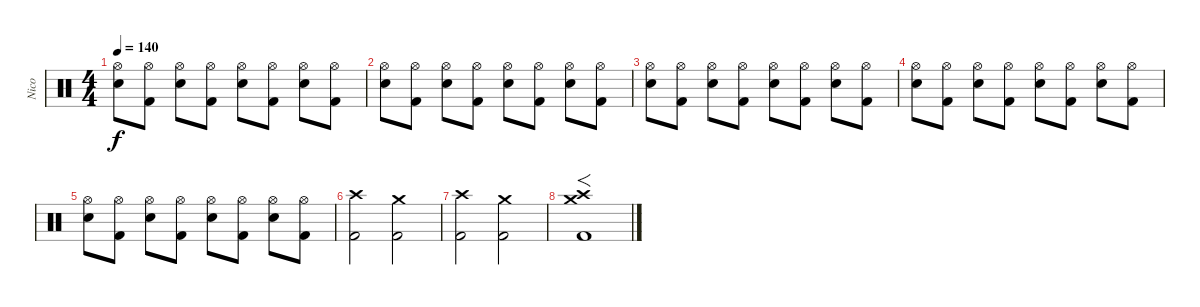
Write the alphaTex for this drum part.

\track ("Nico" "Nico") {instrument percussion}
\staff {score}
\articulation defaults
\ts (4 4)
\tempo 140
\clef neutral
\ks c
("Hi-Hat (open)" "Snare (hit) 2").8{dy f} ("Hi-Hat (open)" "Kick (hit) 2").8 ("Hi-Hat (open)" "Snare (hit) 2").8 ("Hi-Hat (open)" "Kick (hit) 2").8 ("Hi-Hat (open)" "Snare (hit) 2").8 ("Hi-Hat (open)" "Kick (hit) 2").8 ("Hi-Hat (open)" "Snare (hit) 2").8 ("Hi-Hat (open)" "Kick (hit) 2").8 |
("Hi-Hat (open)" "Snare (hit) 2").8 ("Hi-Hat (open)" "Kick (hit) 2").8 ("Hi-Hat (open)" "Snare (hit) 2").8 ("Hi-Hat (open)" "Kick (hit) 2").8 ("Hi-Hat (open)" "Snare (hit) 2").8 ("Hi-Hat (open)" "Kick (hit) 2").8 ("Hi-Hat (open)" "Snare (hit) 2").8 ("Hi-Hat (open)" "Kick (hit) 2").8 |
("Hi-Hat (open)" "Snare (hit) 2").8 ("Hi-Hat (open)" "Kick (hit) 2").8 ("Hi-Hat (open)" "Snare (hit) 2").8 ("Hi-Hat (open)" "Kick (hit) 2").8 ("Hi-Hat (open)" "Snare (hit) 2").8 ("Hi-Hat (open)" "Kick (hit) 2").8 ("Hi-Hat (open)" "Snare (hit) 2").8 ("Hi-Hat (open)" "Kick (hit) 2").8 |
("Hi-Hat (open)" "Snare (hit) 2").8 ("Hi-Hat (open)" "Kick (hit) 2").8 ("Hi-Hat (open)" "Snare (hit) 2").8 ("Hi-Hat (open)" "Kick (hit) 2").8 ("Hi-Hat (open)" "Snare (hit) 2").8 ("Hi-Hat (open)" "Kick (hit) 2").8 ("Hi-Hat (open)" "Snare (hit) 2").8 ("Hi-Hat (open)" "Kick (hit) 2").8 |
("Hi-Hat (open)" "Snare (hit) 2").8 ("Hi-Hat (open)" "Kick (hit) 2").8 ("Hi-Hat (open)" "Snare (hit) 2").8 ("Hi-Hat (open)" "Kick (hit) 2").8 ("Hi-Hat (open)" "Snare (hit) 2").8 ("Hi-Hat (open)" "Kick (hit) 2").8 ("Hi-Hat (open)" "Snare (hit) 2").8 ("Hi-Hat (open)" "Kick (hit) 2").8 |
("Crash high (hit)" "Kick (hit) 2").2 ("Crash medium (hit)" "Kick (hit) 2").2 |
("Crash high (hit)" "Kick (hit) 2").2 ("Crash medium (hit)" "Kick (hit) 2").2 |
("Crash high (hit)" "Crash medium (hit)" "Kick (hit) 2").1{f}
